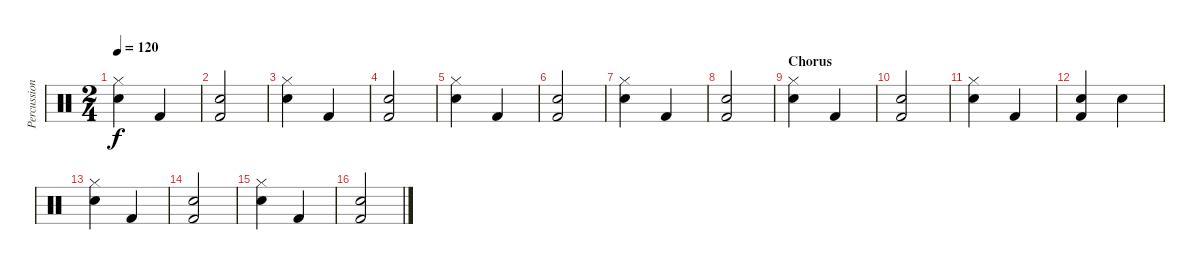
\track ("Percussion" "Percussion") {instrument percussion}
\staff {score}
\articulation defaults
\ts (2 4)
\tempo 120
\clef neutral
\ks c
("Hi-Hat (closed)" "Snare (hit) 2").4{dy f} "Kick (hit) 2".4 |
("Kick (hit) 2" "Snare (hit) 2").2 |
("Hi-Hat (closed)" "Snare (hit) 2").4 "Kick (hit) 2".4 |
("Kick (hit) 2" "Snare (hit) 2").2 |
("Hi-Hat (closed)" "Snare (hit) 2").4 "Kick (hit) 2".4 |
("Kick (hit) 2" "Snare (hit) 2").2 |
("Hi-Hat (closed)" "Snare (hit) 2").4 "Kick (hit) 2".4 |
("Kick (hit) 2" "Snare (hit) 2").2 |
\section ("" "Chorus")
("Hi-Hat (closed)" "Snare (hit) 2").4 "Kick (hit) 2".4 |
("Kick (hit) 2" "Snare (hit) 2").2 |
("Hi-Hat (closed)" "Snare (hit) 2").4 "Kick (hit) 2".4 |
("Kick (hit) 2" "Snare (hit) 2").4 "Snare (hit) 2".4 |
("Hi-Hat (closed)" "Snare (hit) 2").4 "Kick (hit) 2".4 |
("Kick (hit) 2" "Snare (hit) 2").2 |
("Hi-Hat (closed)" "Snare (hit) 2").4 "Kick (hit) 2".4 |
("Kick (hit) 2" "Snare (hit) 2").2
